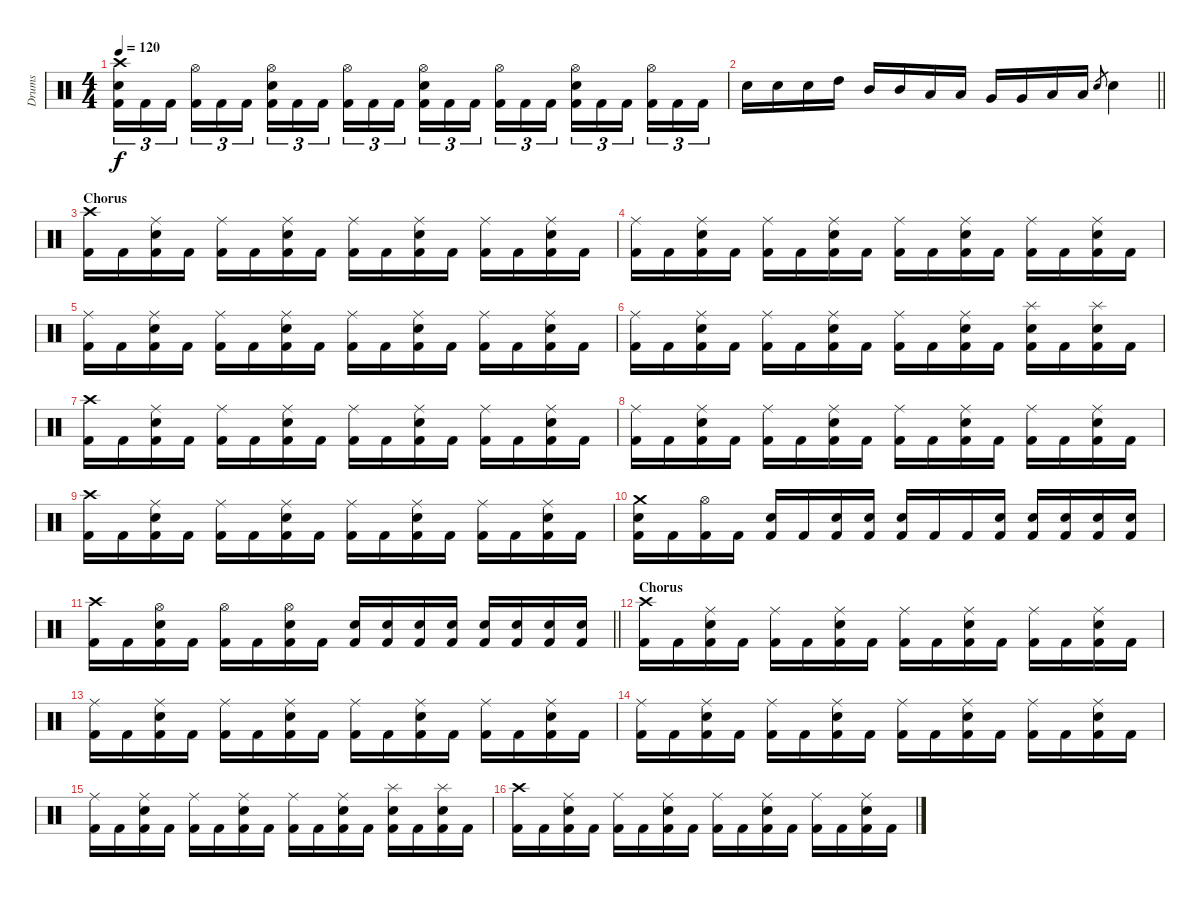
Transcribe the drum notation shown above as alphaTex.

\track ("Drums" "Drums") {instrument percussion}
\staff {score}
\articulation defaults
\ts (4 4)
\tempo 120
\clef neutral
\ks c
("Crash high (hit)" "Snare (hit) 2" "Kick (hit) 2").16{tu (3 2) dy f} "Kick (hit) 2".16{tu (3 2)} "Kick (hit) 2".16{tu (3 2)} ("Hi-Hat (open)" "Kick (hit) 2").16{tu (3 2)} "Kick (hit) 2".16{tu (3 2)} "Kick (hit) 2".16{tu (3 2)} ("Hi-Hat (open)" "Snare (hit) 2" "Kick (hit) 2").16{tu (3 2)} "Kick (hit) 2".16{tu (3 2)} "Kick (hit) 2".16{tu (3 2)} ("Hi-Hat (open)" "Kick (hit) 2").16{tu (3 2)} "Kick (hit) 2".16{tu (3 2)} "Kick (hit) 2".16{tu (3 2)} ("Hi-Hat (open)" "Snare (hit) 2" "Kick (hit) 2").16{tu (3 2)} "Kick (hit) 2".16{tu (3 2)} "Kick (hit) 2".16{tu (3 2)} ("Hi-Hat (open)" "Kick (hit) 2").16{tu (3 2)} "Kick (hit) 2".16{tu (3 2)} "Kick (hit) 2".16{tu (3 2)} ("Hi-Hat (open)" "Snare (hit) 2" "Kick (hit) 2").16{tu (3 2)} "Kick (hit) 2".16{tu (3 2)} "Kick (hit) 2".16{tu (3 2)} ("Hi-Hat (open)" "Kick (hit) 2").16{tu (3 2)} "Kick (hit) 2".16{tu (3 2)} "Kick (hit) 2".16{tu (3 2)} |
\barLineRight lightlight "Snare (hit) 2".16 "Snare (hit) 2".16 "Snare (hit) 2".16 "High Tom (hit)".16 "Mid Tom (hit)".16 "Mid Tom (hit)".16 "Low Tom (hit)".16 "Low Tom (hit)".16 "Very Low Tom (hit)".16 "Very Low Tom (hit)".16 "Low Floor Tom (hit)".16 "Low Floor Tom (hit)".16 "Snare (hit) 2".8{gr} "Snare (hit) 2".4
|
\section ("" "Chorus")
("Crash high (hit)" "Kick (hit) 2").16 "Kick (hit) 2".16 ("Ride (middle)" "Snare (hit) 2" "Kick (hit) 2").16 "Kick (hit) 2".16 ("Ride (middle)" "Kick (hit) 2").16 "Kick (hit) 2".16 ("Ride (middle)" "Snare (hit) 2" "Kick (hit) 2").16 "Kick (hit) 2".16 ("Ride (middle)" "Kick (hit) 2").16 "Kick (hit) 2".16 ("Ride (middle)" "Snare (hit) 2" "Kick (hit) 2").16 "Kick (hit) 2".16 ("Ride (middle)" "Kick (hit) 2").16 "Kick (hit) 2".16 ("Ride (middle)" "Snare (hit) 2" "Kick (hit) 2").16 "Kick (hit) 2".16 |
("Ride (middle)" "Kick (hit) 2").16 "Kick (hit) 2".16 ("Ride (middle)" "Snare (hit) 2" "Kick (hit) 2").16 "Kick (hit) 2".16 ("Ride (middle)" "Kick (hit) 2").16 "Kick (hit) 2".16 ("Ride (middle)" "Snare (hit) 2" "Kick (hit) 2").16 "Kick (hit) 2".16 ("Ride (middle)" "Kick (hit) 2").16 "Kick (hit) 2".16 ("Ride (middle)" "Snare (hit) 2" "Kick (hit) 2").16 "Kick (hit) 2".16 ("Ride (middle)" "Kick (hit) 2").16 "Kick (hit) 2".16 ("Ride (middle)" "Snare (hit) 2" "Kick (hit) 2").16 "Kick (hit) 2".16 |
("Ride (middle)" "Kick (hit) 2").16 "Kick (hit) 2".16 ("Ride (middle)" "Snare (hit) 2" "Kick (hit) 2").16 "Kick (hit) 2".16 ("Ride (middle)" "Kick (hit) 2").16 "Kick (hit) 2".16 ("Ride (middle)" "Snare (hit) 2" "Kick (hit) 2").16 "Kick (hit) 2".16 ("Ride (middle)" "Kick (hit) 2").16 "Kick (hit) 2".16 ("Ride (middle)" "Snare (hit) 2" "Kick (hit) 2").16 "Kick (hit) 2".16 ("Ride (middle)" "Kick (hit) 2").16 "Kick (hit) 2".16 ("Ride (middle)" "Snare (hit) 2" "Kick (hit) 2").16 "Kick (hit) 2".16 |
("Ride (middle)" "Kick (hit) 2").16 "Kick (hit) 2".16 ("Ride (middle)" "Snare (hit) 2" "Kick (hit) 2").16 "Kick (hit) 2".16 ("Ride (middle)" "Kick (hit) 2").16 "Kick (hit) 2".16 ("Ride (middle)" "Snare (hit) 2" "Kick (hit) 2").16 "Kick (hit) 2".16 ("Ride (middle)" "Kick (hit) 2").16 "Kick (hit) 2".16 ("Ride (middle)" "Snare (hit) 2" "Kick (hit) 2").16 "Kick (hit) 2".16 ("Splash (hit)" "Snare (hit) 2" "Kick (hit) 2").16 "Kick (hit) 2".16 ("Splash (hit)" "Snare (hit) 2" "Kick (hit) 2").16 "Kick (hit) 2".16 |
("Crash high (hit)" "Kick (hit) 2").16 "Kick (hit) 2".16 ("Ride (middle)" "Snare (hit) 2" "Kick (hit) 2").16 "Kick (hit) 2".16 ("Ride (middle)" "Kick (hit) 2").16 "Kick (hit) 2".16 ("Ride (middle)" "Snare (hit) 2" "Kick (hit) 2").16 "Kick (hit) 2".16 ("Ride (middle)" "Kick (hit) 2").16 "Kick (hit) 2".16 ("Ride (middle)" "Snare (hit) 2" "Kick (hit) 2").16 "Kick (hit) 2".16 ("Ride (middle)" "Kick (hit) 2").16 "Kick (hit) 2".16 ("Ride (middle)" "Snare (hit) 2" "Kick (hit) 2").16 "Kick (hit) 2".16 |
("Ride (middle)" "Kick (hit) 2").16 "Kick (hit) 2".16 ("Ride (middle)" "Snare (hit) 2" "Kick (hit) 2").16 "Kick (hit) 2".16 ("Ride (middle)" "Kick (hit) 2").16 "Kick (hit) 2".16 ("Ride (middle)" "Snare (hit) 2" "Kick (hit) 2").16 "Kick (hit) 2".16 ("Ride (middle)" "Kick (hit) 2").16 "Kick (hit) 2".16 ("Ride (middle)" "Snare (hit) 2" "Kick (hit) 2").16 "Kick (hit) 2".16 ("Ride (middle)" "Kick (hit) 2").16 "Kick (hit) 2".16 ("Ride (middle)" "Snare (hit) 2" "Kick (hit) 2").16 "Kick (hit) 2".16 |
("Crash high (hit)" "Kick (hit) 2").16 "Kick (hit) 2".16 ("Ride (middle)" "Snare (hit) 2" "Kick (hit) 2").16 "Kick (hit) 2".16 ("Ride (middle)" "Kick (hit) 2").16 "Kick (hit) 2".16 ("Ride (middle)" "Snare (hit) 2" "Kick (hit) 2").16 "Kick (hit) 2".16 ("Ride (middle)" "Kick (hit) 2").16 "Kick (hit) 2".16 ("Ride (middle)" "Snare (hit) 2" "Kick (hit) 2").16 "Kick (hit) 2".16 ("Ride (middle)" "Kick (hit) 2").16 "Kick (hit) 2".16 ("Ride (middle)" "Snare (hit) 2" "Kick (hit) 2").16 "Kick (hit) 2".16 |
("Crash medium (hit)" "Snare (hit) 2" "Kick (hit) 2").16 "Kick (hit) 2".16 ("Hi-Hat (open)" "Kick (hit) 2").16 "Kick (hit) 2".16 ("Snare (hit) 2" "Kick (hit) 2").16 "Kick (hit) 2".16 ("Snare (hit) 2" "Kick (hit) 2").16 ("Snare (hit) 2" "Kick (hit) 2").16 ("Snare (hit) 2" "Kick (hit) 2").16 "Kick (hit) 2".16 "Kick (hit) 2".16 ("Snare (hit) 2" "Kick (hit) 2").16 ("Snare (hit) 2" "Kick (hit) 2").16 ("Snare (hit) 2" "Kick (hit) 2").16 ("Snare (hit) 2" "Kick (hit) 2").16 ("Snare (hit) 2" "Kick (hit) 2").16 |
\barLineRight lightlight
("Crash high (hit)" "Kick (hit) 2").16 "Kick (hit) 2".16 ("Hi-Hat (open)" "Snare (hit) 2" "Kick (hit) 2").16 "Kick (hit) 2".16 ("Hi-Hat (open)" "Kick (hit) 2").16 "Kick (hit) 2".16 ("Hi-Hat (open)" "Snare (hit) 2" "Kick (hit) 2").16 "Kick (hit) 2".16 ("Snare (hit) 2" "Kick (hit) 2").16 ("Snare (hit) 2" "Kick (hit) 2").16 ("Snare (hit) 2" "Kick (hit) 2").16 ("Snare (hit) 2" "Kick (hit) 2").16 ("Snare (hit) 2" "Kick (hit) 2").16 ("Snare (hit) 2" "Kick (hit) 2").16 ("Snare (hit) 2" "Kick (hit) 2").16 ("Snare (hit) 2" "Kick (hit) 2").16 |
\section ("" "Chorus")
("Crash high (hit)" "Kick (hit) 2").16 "Kick (hit) 2".16 ("Ride (middle)" "Snare (hit) 2" "Kick (hit) 2").16 "Kick (hit) 2".16 ("Ride (middle)" "Kick (hit) 2").16 "Kick (hit) 2".16 ("Ride (middle)" "Snare (hit) 2" "Kick (hit) 2").16 "Kick (hit) 2".16 ("Ride (middle)" "Kick (hit) 2").16 "Kick (hit) 2".16 ("Ride (middle)" "Snare (hit) 2" "Kick (hit) 2").16 "Kick (hit) 2".16 ("Ride (middle)" "Kick (hit) 2").16 "Kick (hit) 2".16 ("Ride (middle)" "Snare (hit) 2" "Kick (hit) 2").16 "Kick (hit) 2".16 |
("Ride (middle)" "Kick (hit) 2").16 "Kick (hit) 2".16 ("Ride (middle)" "Snare (hit) 2" "Kick (hit) 2").16 "Kick (hit) 2".16 ("Ride (middle)" "Kick (hit) 2").16 "Kick (hit) 2".16 ("Ride (middle)" "Snare (hit) 2" "Kick (hit) 2").16 "Kick (hit) 2".16 ("Ride (middle)" "Kick (hit) 2").16 "Kick (hit) 2".16 ("Ride (middle)" "Snare (hit) 2" "Kick (hit) 2").16 "Kick (hit) 2".16 ("Ride (middle)" "Kick (hit) 2").16 "Kick (hit) 2".16 ("Ride (middle)" "Snare (hit) 2" "Kick (hit) 2").16 "Kick (hit) 2".16 |
("Ride (middle)" "Kick (hit) 2").16 "Kick (hit) 2".16 ("Ride (middle)" "Snare (hit) 2" "Kick (hit) 2").16 "Kick (hit) 2".16 ("Ride (middle)" "Kick (hit) 2").16 "Kick (hit) 2".16 ("Ride (middle)" "Snare (hit) 2" "Kick (hit) 2").16 "Kick (hit) 2".16 ("Ride (middle)" "Kick (hit) 2").16 "Kick (hit) 2".16 ("Ride (middle)" "Snare (hit) 2" "Kick (hit) 2").16 "Kick (hit) 2".16 ("Ride (middle)" "Kick (hit) 2").16 "Kick (hit) 2".16 ("Ride (middle)" "Snare (hit) 2" "Kick (hit) 2").16 "Kick (hit) 2".16 |
("Ride (middle)" "Kick (hit) 2").16 "Kick (hit) 2".16 ("Ride (middle)" "Snare (hit) 2" "Kick (hit) 2").16 "Kick (hit) 2".16 ("Ride (middle)" "Kick (hit) 2").16 "Kick (hit) 2".16 ("Ride (middle)" "Snare (hit) 2" "Kick (hit) 2").16 "Kick (hit) 2".16 ("Ride (middle)" "Kick (hit) 2").16 "Kick (hit) 2".16 ("Ride (middle)" "Snare (hit) 2" "Kick (hit) 2").16 "Kick (hit) 2".16 ("Splash (hit)" "Snare (hit) 2" "Kick (hit) 2").16 "Kick (hit) 2".16 ("Splash (hit)" "Snare (hit) 2" "Kick (hit) 2").16 "Kick (hit) 2".16 |
("Crash high (hit)" "Kick (hit) 2").16 "Kick (hit) 2".16 ("Ride (middle)" "Snare (hit) 2" "Kick (hit) 2").16 "Kick (hit) 2".16 ("Ride (middle)" "Kick (hit) 2").16 "Kick (hit) 2".16 ("Ride (middle)" "Snare (hit) 2" "Kick (hit) 2").16 "Kick (hit) 2".16 ("Ride (middle)" "Kick (hit) 2").16 "Kick (hit) 2".16 ("Ride (middle)" "Snare (hit) 2" "Kick (hit) 2").16 "Kick (hit) 2".16 ("Ride (middle)" "Kick (hit) 2").16 "Kick (hit) 2".16 ("Ride (middle)" "Snare (hit) 2" "Kick (hit) 2").16 "Kick (hit) 2".16
